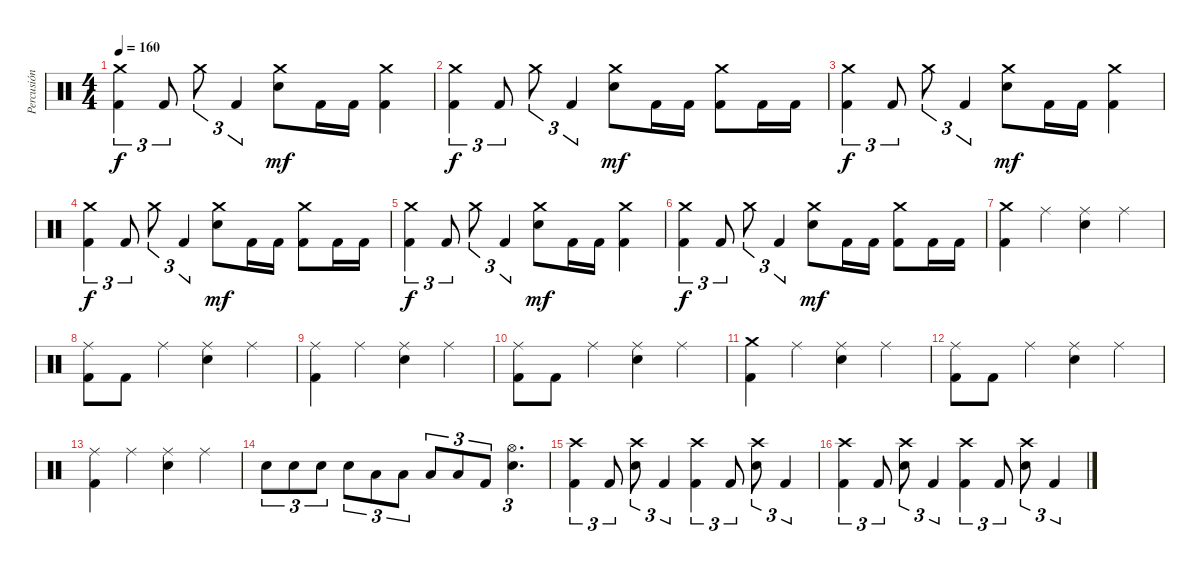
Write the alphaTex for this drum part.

\track ("Percusión" "Percusión") {instrument percussion}
\staff {score}
\articulation defaults
\ts (4 4)
\tempo 160
\clef neutral
\ks c
("Crash medium (hit)" "Kick (hit) 2").4{tu (3 2) dy f} "Kick (hit) 2".8{tu (3 2)} "Crash medium (hit)".8{tu (3 2)} "Kick (hit) 2".4{tu (3 2)} ("Electric Snare (hit)" "Crash medium (hit)").8{dy mf} "Kick (hit) 2".16 "Kick (hit) 2".16 ("Crash medium (hit)" "Kick (hit) 2").4 |
("Crash medium (hit)" "Kick (hit) 2").4{tu (3 2) dy f} "Kick (hit) 2".8{tu (3 2)} "Crash medium (hit)".8{tu (3 2)} "Kick (hit) 2".4{tu (3 2)} ("Electric Snare (hit)" "Crash medium (hit)").8{dy mf} "Kick (hit) 2".16 "Kick (hit) 2".16 ("Crash medium (hit)" "Kick (hit) 2").8 "Kick (hit) 2".16 "Kick (hit) 2".16 |
("Crash medium (hit)" "Kick (hit) 2").4{tu (3 2) dy f} "Kick (hit) 2".8{tu (3 2)} "Crash medium (hit)".8{tu (3 2)} "Kick (hit) 2".4{tu (3 2)} ("Electric Snare (hit)" "Crash medium (hit)").8{dy mf} "Kick (hit) 2".16 "Kick (hit) 2".16 ("Crash medium (hit)" "Kick (hit) 2").4 |
("Crash medium (hit)" "Kick (hit) 2").4{tu (3 2) dy f} "Kick (hit) 2".8{tu (3 2)} "Crash medium (hit)".8{tu (3 2)} "Kick (hit) 2".4{tu (3 2)} ("Electric Snare (hit)" "Crash medium (hit)").8{dy mf} "Kick (hit) 2".16 "Kick (hit) 2".16 ("Crash medium (hit)" "Kick (hit) 2").8 "Kick (hit) 2".16 "Kick (hit) 2".16 |
("Crash medium (hit)" "Kick (hit) 2").4{tu (3 2) dy f} "Kick (hit) 2".8{tu (3 2)} "Crash medium (hit)".8{tu (3 2)} "Kick (hit) 2".4{tu (3 2)} ("Electric Snare (hit)" "Crash medium (hit)").8{dy mf} "Kick (hit) 2".16 "Kick (hit) 2".16 ("Crash medium (hit)" "Kick (hit) 2").4 |
("Crash medium (hit)" "Kick (hit) 2").4{tu (3 2) dy f} "Kick (hit) 2".8{tu (3 2)} "Crash medium (hit)".8{tu (3 2)} "Kick (hit) 2".4{tu (3 2)} ("Electric Snare (hit)" "Crash medium (hit)").8{dy mf} "Kick (hit) 2".16 "Kick (hit) 2".16 ("Crash medium (hit)" "Kick (hit) 2").8 "Kick (hit) 2".16 "Kick (hit) 2".16 |
("Crash medium (hit)" "Kick (hit) 2").4 "Ride (middle)".4 ("Electric Snare (hit)" "Ride (middle)").4 "Ride (middle)".4 |
("Ride (middle)" "Kick (hit) 2").8 "Kick (hit) 2".8 "Ride (middle)".4 ("Electric Snare (hit)" "Ride (middle)").4 "Ride (middle)".4 |
("Ride (middle)" "Kick (hit) 2").4 "Ride (middle)".4 ("Electric Snare (hit)" "Ride (middle)").4 "Ride (middle)".4 |
("Ride (middle)" "Kick (hit) 2").8 "Kick (hit) 2".8 "Ride (middle)".4 ("Electric Snare (hit)" "Ride (middle)").4 "Ride (middle)".4 |
("Crash medium (hit)" "Kick (hit) 2").4 "Ride (middle)".4 ("Electric Snare (hit)" "Ride (middle)").4 "Ride (middle)".4 |
("Ride (middle)" "Kick (hit) 2").8 "Kick (hit) 2".8 "Ride (middle)".4 ("Electric Snare (hit)" "Ride (middle)").4 "Ride (middle)".4 |
("Ride (middle)" "Kick (hit) 2").4 "Ride (middle)".4 ("Electric Snare (hit)" "Ride (middle)").4 "Ride (middle)".4 |
"Electric Snare (hit)".8{tu (3 2)} "Electric Snare (hit)".8{tu (3 2)} "Electric Snare (hit)".8{tu (3 2)} "Electric Snare (hit)".8{tu (3 2)} "Low Tom (hit)".8{tu (3 2)} "Low Tom (hit)".8{tu (3 2)} "Low Floor Tom (hit)".8{tu (3 2)} "Low Floor Tom (hit)".8{tu (3 2)} "Kick (hit) 2".8{tu (3 2)} ("Electric Snare (hit)" "Hi-Hat (open)").4{d tu (3 2)} |
("Crash high (hit)" "Kick (hit) 2").4{tu (3 2)} "Kick (hit) 2".8{tu (3 2)} ("Electric Snare (hit)" "Crash high (hit)").8{tu (3 2)} "Kick (hit) 2".4{tu (3 2)} ("Crash high (hit)" "Kick (hit) 2").4{tu (3 2)} "Kick (hit) 2".8{tu (3 2)} ("Electric Snare (hit)" "Crash high (hit)").8{tu (3 2)} "Kick (hit) 2".4{tu (3 2)} |
("Crash high (hit)" "Kick (hit) 2").4{tu (3 2)} "Kick (hit) 2".8{tu (3 2)} ("Electric Snare (hit)" "Crash high (hit)").8{tu (3 2)} "Kick (hit) 2".4{tu (3 2)} ("Crash high (hit)" "Kick (hit) 2").4{tu (3 2)} "Kick (hit) 2".8{tu (3 2)} ("Electric Snare (hit)" "Crash high (hit)").8{tu (3 2)} "Kick (hit) 2".4{tu (3 2)}
